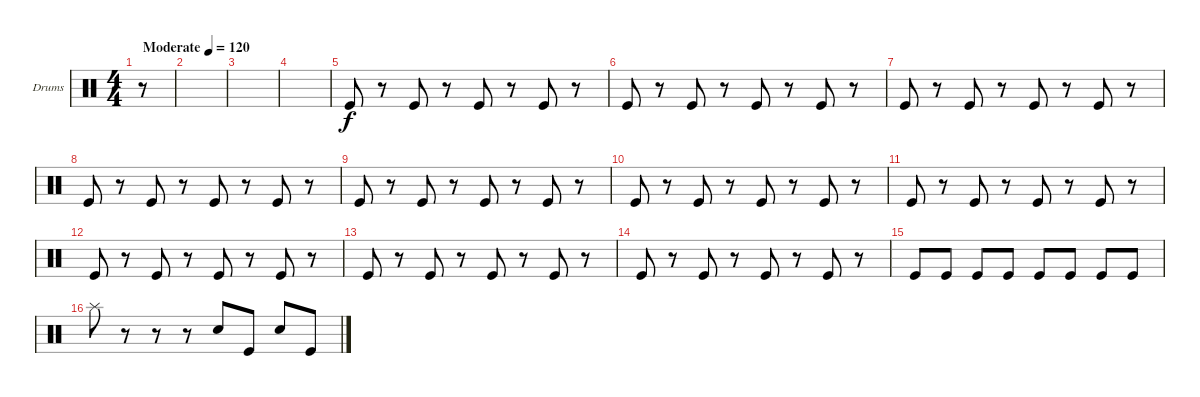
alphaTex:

\bracketExtendMode groupsimilarinstruments
\firstSystemTrackNameOrientation horizontal
\otherSystemsTrackNameOrientation horizontal
\track ("Drumkit" "Drums") {instrument percussion}
\staff {score}
\articulation defaults
\ts (4 4)
\beaming (8 2 2 2 2)
\tempo (120 "Moderate")
\clef neutral
\scale
0.472222
\ks c
r.8{dy f} |
\scale
0.263889 |
\scale
0.263889 |
\scale
0.333333 |
\scale
0.333333 "Kick (hit)".8 r.8 "Kick (hit)".8 r.8 "Kick (hit)".8 r.8 "Kick (hit)".8 r.8 |
\scale
0.333333 "Kick (hit)".8 r.8 "Kick (hit)".8 r.8 "Kick (hit)".8 r.8 "Kick (hit)".8 r.8 |
\scale
0.333333 "Kick (hit)".8 r.8 "Kick (hit)".8 r.8 "Kick (hit)".8 r.8 "Kick (hit)".8 r.8 |
\scale
0.333333 "Kick (hit)".8 r.8 "Kick (hit)".8 r.8 "Kick (hit)".8 r.8 "Kick (hit)".8 r.8 |
\scale
0.333333 "Kick (hit)".8 r.8 "Kick (hit)".8 r.8 "Kick (hit)".8 r.8 "Kick (hit)".8 r.8 |
\scale
0.333333 "Kick (hit)".8 r.8 "Kick (hit)".8 r.8 "Kick (hit)".8 r.8 "Kick (hit)".8 r.8 |
\scale
0.333333 "Kick (hit)".8 r.8 "Kick (hit)".8 r.8 "Kick (hit)".8 r.8 "Kick (hit)".8 r.8 |
\scale
0.333333 "Kick (hit)".8 r.8 "Kick (hit)".8 r.8 "Kick (hit)".8 r.8 "Kick (hit)".8 r.8 |
\scale
0.333333 "Kick (hit)".8 r.8 "Kick (hit)".8 r.8 "Kick (hit)".8 r.8 "Kick (hit)".8 r.8 |
\scale
0.333333 "Kick (hit)".8 r.8 "Kick (hit)".8 r.8 "Kick (hit)".8 r.8 "Kick (hit)".8 r.8 |
\scale
0.333333 "Kick (hit)".8 "Kick (hit)".8 "Kick (hit)".8 "Kick (hit)".8 "Kick (hit)".8 "Kick (hit)".8 "Kick (hit)".8 "Kick (hit)".8 |
\scale
0.333333 "Splash (hit)".8 r.8 r.8 r.8 "Snare (hit) 2".8 "Kick (hit)".8 "Snare (hit) 2".8 "Kick (hit)".8
